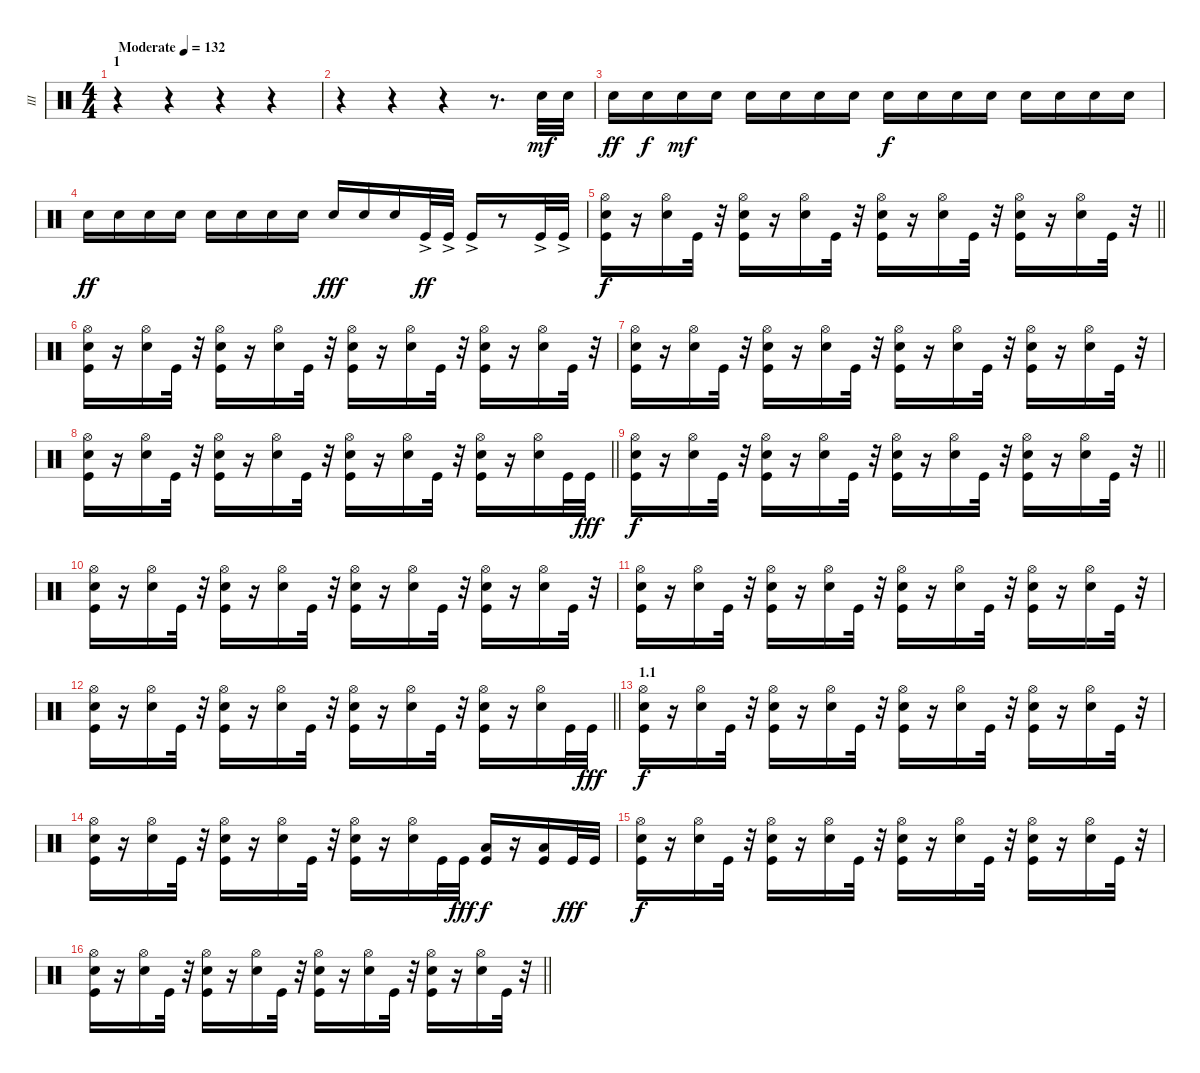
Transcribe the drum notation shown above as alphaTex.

\track ("III" "III") {instrument percussion}
\staff {score}
\articulation defaults
\ts (4 4)
\section ("" "1")
\tempo (132 "Moderate")
\clef neutral
\ks c
r.4{dy mf} r.4 r.4 r.4 |
r.4 r.4 r.4 r.8{d} "Snare (hit) 2".32 "Snare (hit) 2".32 |
"Snare (hit) 2".16{dy ff} "Snare (hit) 2".16{dy f} "Snare (hit) 2".16{dy mf} "Snare (hit) 2".16 "Snare (hit) 2".16 "Snare (hit) 2".16 "Snare (hit) 2".16 "Snare (hit) 2".16 "Snare (hit) 2".16{dy f} "Snare (hit) 2".16 "Snare (hit) 2".16 "Snare (hit) 2".16 "Snare (hit) 2".16 "Snare (hit) 2".16 "Snare (hit) 2".16 "Snare (hit) 2".16 |
"Snare (hit) 2".16{dy ff} "Snare (hit) 2".16 "Snare (hit) 2".16 "Snare (hit) 2".16 "Snare (hit) 2".16 "Snare (hit) 2".16 "Snare (hit) 2".16 "Snare (hit) 2".16 "Snare (hit) 2".16{dy fff} "Snare (hit) 2".16 "Snare (hit) 2".16 "Kick (hit)"{ac}.32{dy ff} "Kick (hit)"{ac}.32 "Kick (hit)"{ac}.16 r.8 "Kick (hit)"{ac}.32 "Kick (hit)"{ac}.32 |
\barLineRight lightlight
("Hi-Hat (open)" "Kick (hit)" "Snare (hit) 2").16{dy f} r.16 ("Hi-Hat (open)" "Snare (hit) 2").16 "Kick (hit)".32 r.32 ("Hi-Hat (open)" "Kick (hit)" "Snare (hit) 2").16 r.16 ("Hi-Hat (open)" "Snare (hit) 2").16 "Kick (hit)".32 r.32 ("Hi-Hat (open)" "Kick (hit)" "Snare (hit) 2").16 r.16 ("Hi-Hat (open)" "Snare (hit) 2").16 "Kick (hit)".32 r.32 ("Hi-Hat (open)" "Kick (hit)" "Snare (hit) 2").16 r.16 ("Hi-Hat (open)" "Snare (hit) 2").16 "Kick (hit)".32 r.32 |
("Hi-Hat (open)" "Kick (hit)" "Snare (hit) 2").16 r.16 ("Hi-Hat (open)" "Snare (hit) 2").16 "Kick (hit)".32 r.32 ("Hi-Hat (open)" "Kick (hit)" "Snare (hit) 2").16 r.16 ("Hi-Hat (open)" "Snare (hit) 2").16 "Kick (hit)".32 r.32 ("Hi-Hat (open)" "Kick (hit)" "Snare (hit) 2").16 r.16 ("Hi-Hat (open)" "Snare (hit) 2").16 "Kick (hit)".32 r.32 ("Hi-Hat (open)" "Kick (hit)" "Snare (hit) 2").16 r.16 ("Hi-Hat (open)" "Snare (hit) 2").16 "Kick (hit)".32 r.32 |
("Hi-Hat (open)" "Kick (hit)" "Snare (hit) 2").16 r.16 ("Hi-Hat (open)" "Snare (hit) 2").16 "Kick (hit)".32 r.32 ("Hi-Hat (open)" "Kick (hit)" "Snare (hit) 2").16 r.16 ("Hi-Hat (open)" "Snare (hit) 2").16 "Kick (hit)".32 r.32 ("Hi-Hat (open)" "Kick (hit)" "Snare (hit) 2").16 r.16 ("Hi-Hat (open)" "Snare (hit) 2").16 "Kick (hit)".32 r.32 ("Hi-Hat (open)" "Kick (hit)" "Snare (hit) 2").16 r.16 ("Hi-Hat (open)" "Snare (hit) 2").16 "Kick (hit)".32 r.32 |
\barLineRight lightlight
("Hi-Hat (open)" "Kick (hit)" "Snare (hit) 2").16 r.16 ("Hi-Hat (open)" "Snare (hit) 2").16 "Kick (hit)".32 r.32 ("Hi-Hat (open)" "Kick (hit)" "Snare (hit) 2").16 r.16 ("Hi-Hat (open)" "Snare (hit) 2").16 "Kick (hit)".32 r.32 ("Hi-Hat (open)" "Kick (hit)" "Snare (hit) 2").16 r.16 ("Hi-Hat (open)" "Snare (hit) 2").16 "Kick (hit)".32 r.32 ("Hi-Hat (open)" "Kick (hit)" "Snare (hit) 2").16 r.16 ("Hi-Hat (open)" "Snare (hit) 2").16 "Kick (hit)".32 "Kick (hit)".32{dy fff} |
\barLineRight lightlight
("Hi-Hat (open)" "Kick (hit)" "Snare (hit) 2").16{dy f} r.16 ("Hi-Hat (open)" "Snare (hit) 2").16 "Kick (hit)".32 r.32 ("Hi-Hat (open)" "Kick (hit)" "Snare (hit) 2").16 r.16 ("Hi-Hat (open)" "Snare (hit) 2").16 "Kick (hit)".32 r.32 ("Hi-Hat (open)" "Kick (hit)" "Snare (hit) 2").16 r.16 ("Hi-Hat (open)" "Snare (hit) 2").16 "Kick (hit)".32 r.32 ("Hi-Hat (open)" "Kick (hit)" "Snare (hit) 2").16 r.16 ("Hi-Hat (open)" "Snare (hit) 2").16 "Kick (hit)".32 r.32 |
("Hi-Hat (open)" "Kick (hit)" "Snare (hit) 2").16 r.16 ("Hi-Hat (open)" "Snare (hit) 2").16 "Kick (hit)".32 r.32 ("Hi-Hat (open)" "Kick (hit)" "Snare (hit) 2").16 r.16 ("Hi-Hat (open)" "Snare (hit) 2").16 "Kick (hit)".32 r.32 ("Hi-Hat (open)" "Kick (hit)" "Snare (hit) 2").16 r.16 ("Hi-Hat (open)" "Snare (hit) 2").16 "Kick (hit)".32 r.32 ("Hi-Hat (open)" "Kick (hit)" "Snare (hit) 2").16 r.16 ("Hi-Hat (open)" "Snare (hit) 2").16 "Kick (hit)".32 r.32 |
("Hi-Hat (open)" "Kick (hit)" "Snare (hit) 2").16 r.16 ("Hi-Hat (open)" "Snare (hit) 2").16 "Kick (hit)".32 r.32 ("Hi-Hat (open)" "Kick (hit)" "Snare (hit) 2").16 r.16 ("Hi-Hat (open)" "Snare (hit) 2").16 "Kick (hit)".32 r.32 ("Hi-Hat (open)" "Kick (hit)" "Snare (hit) 2").16 r.16 ("Hi-Hat (open)" "Snare (hit) 2").16 "Kick (hit)".32 r.32 ("Hi-Hat (open)" "Kick (hit)" "Snare (hit) 2").16 r.16 ("Hi-Hat (open)" "Snare (hit) 2").16 "Kick (hit)".32 r.32 |
\barLineRight lightlight
("Hi-Hat (open)" "Kick (hit)" "Snare (hit) 2").16 r.16 ("Hi-Hat (open)" "Snare (hit) 2").16 "Kick (hit)".32 r.32 ("Hi-Hat (open)" "Kick (hit)" "Snare (hit) 2").16 r.16 ("Hi-Hat (open)" "Snare (hit) 2").16 "Kick (hit)".32 r.32 ("Hi-Hat (open)" "Kick (hit)" "Snare (hit) 2").16 r.16 ("Hi-Hat (open)" "Snare (hit) 2").16 "Kick (hit)".32 r.32 ("Hi-Hat (open)" "Kick (hit)" "Snare (hit) 2").16 r.16 ("Hi-Hat (open)" "Snare (hit) 2").16 "Kick (hit)".32 "Kick (hit)".32{dy fff} |
\section ("" "1.1")
("Hi-Hat (open)" "Kick (hit)" "Snare (hit) 2").16{dy f} r.16 ("Hi-Hat (open)" "Snare (hit) 2").16 "Kick (hit)".32 r.32 ("Hi-Hat (open)" "Kick (hit)" "Snare (hit) 2").16 r.16 ("Hi-Hat (open)" "Snare (hit) 2").16 "Kick (hit)".32 r.32 ("Hi-Hat (open)" "Kick (hit)" "Snare (hit) 2").16 r.16 ("Hi-Hat (open)" "Snare (hit) 2").16 "Kick (hit)".32 r.32 ("Hi-Hat (open)" "Kick (hit)" "Snare (hit) 2").16 r.16 ("Hi-Hat (open)" "Snare (hit) 2").16 "Kick (hit)".32 r.32 |
("Hi-Hat (open)" "Kick (hit)" "Snare (hit) 2").16 r.16 ("Hi-Hat (open)" "Snare (hit) 2").16 "Kick (hit)".32 r.32 ("Hi-Hat (open)" "Kick (hit)" "Snare (hit) 2").16 r.16 ("Hi-Hat (open)" "Snare (hit) 2").16 "Kick (hit)".32 r.32 ("Hi-Hat (open)" "Kick (hit)" "Snare (hit) 2").16 r.16 ("Hi-Hat (open)" "Snare (hit) 2").16 "Kick (hit)".32 "Kick (hit)".32{dy fff} ("Kick (hit)" "Low Tom (hit)").16{dy f} r.16 ("Kick (hit)" "Low Tom (hit)").16 "Kick (hit)".32{dy fff} "Kick (hit)".32 |
("Hi-Hat (open)" "Kick (hit)" "Snare (hit) 2").16{dy f} r.16 ("Hi-Hat (open)" "Snare (hit) 2").16 "Kick (hit)".32 r.32 ("Hi-Hat (open)" "Kick (hit)" "Snare (hit) 2").16 r.16 ("Hi-Hat (open)" "Snare (hit) 2").16 "Kick (hit)".32 r.32 ("Hi-Hat (open)" "Kick (hit)" "Snare (hit) 2").16 r.16 ("Hi-Hat (open)" "Snare (hit) 2").16 "Kick (hit)".32 r.32 ("Hi-Hat (open)" "Kick (hit)" "Snare (hit) 2").16 r.16 ("Hi-Hat (open)" "Snare (hit) 2").16 "Kick (hit)".32 r.32 |
\barLineRight lightlight
("Hi-Hat (open)" "Kick (hit)" "Snare (hit) 2").16 r.16 ("Hi-Hat (open)" "Snare (hit) 2").16 "Kick (hit)".32 r.32 ("Hi-Hat (open)" "Kick (hit)" "Snare (hit) 2").16 r.16 ("Hi-Hat (open)" "Snare (hit) 2").16 "Kick (hit)".32 r.32 ("Hi-Hat (open)" "Kick (hit)" "Snare (hit) 2").16 r.16 ("Hi-Hat (open)" "Snare (hit) 2").16 "Kick (hit)".32 r.32 ("Hi-Hat (open)" "Kick (hit)" "Snare (hit) 2").16 r.16 ("Hi-Hat (open)" "Snare (hit) 2").16 "Kick (hit)".32 r.32
